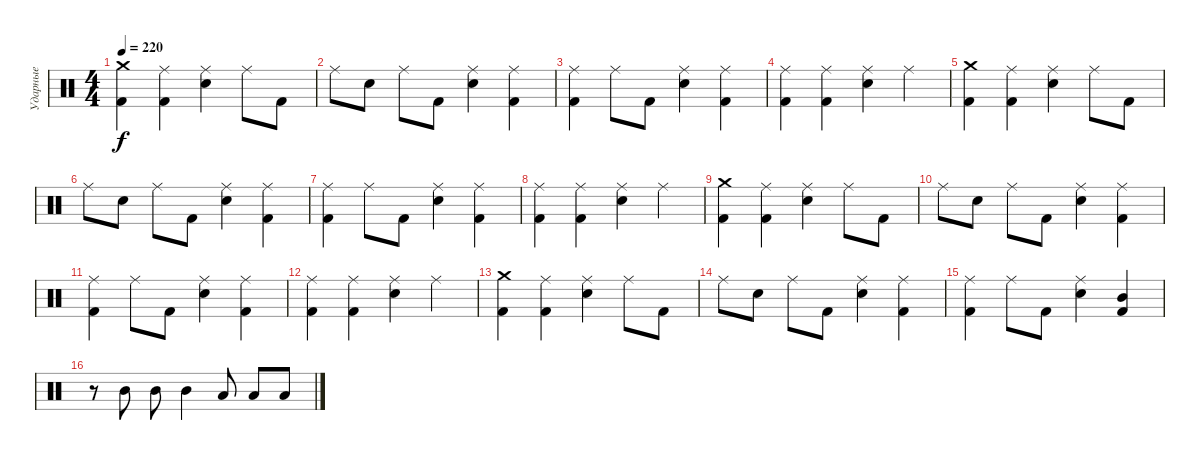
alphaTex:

\track ("Ударные" "Ударные") {instrument percussion}
\staff {score}
\articulation defaults
\ts (4 4)
\tempo 220
\clef neutral
\ks c
("Crash medium (hit)" "Kick (hit) 2").4{dy f} ("Ride (middle)" "Kick (hit) 2").4 ("Ride (middle)" "Electric Snare (hit)").4 "Ride (middle)".8 "Kick (hit) 2".8 |
"Ride (middle)".8 "Electric Snare (hit)".8 "Ride (middle)".8 "Kick (hit) 2".8 ("Ride (middle)" "Electric Snare (hit)").4 ("Ride (middle)" "Kick (hit) 2").4 |
("Ride (middle)" "Kick (hit) 2").4 "Ride (middle)".8 "Kick (hit) 2".8 ("Ride (middle)" "Electric Snare (hit)").4 ("Ride (middle)" "Kick (hit) 2").4 |
("Ride (middle)" "Kick (hit) 2").4 ("Ride (middle)" "Kick (hit) 2").4 ("Ride (middle)" "Electric Snare (hit)").4 "Ride (middle)".4 |
("Crash medium (hit)" "Kick (hit) 2").4 ("Ride (middle)" "Kick (hit) 2").4 ("Ride (middle)" "Electric Snare (hit)").4 "Ride (middle)".8 "Kick (hit) 2".8 |
"Ride (middle)".8 "Electric Snare (hit)".8 "Ride (middle)".8 "Kick (hit) 2".8 ("Ride (middle)" "Electric Snare (hit)").4 ("Ride (middle)" "Kick (hit) 2").4 |
("Ride (middle)" "Kick (hit) 2").4 "Ride (middle)".8 "Kick (hit) 2".8 ("Ride (middle)" "Electric Snare (hit)").4 ("Ride (middle)" "Kick (hit) 2").4 |
("Ride (middle)" "Kick (hit) 2").4 ("Ride (middle)" "Kick (hit) 2").4 ("Ride (middle)" "Electric Snare (hit)").4 "Ride (middle)".4 |
("Crash medium (hit)" "Kick (hit) 2").4 ("Ride (middle)" "Kick (hit) 2").4 ("Ride (middle)" "Electric Snare (hit)").4 "Ride (middle)".8 "Kick (hit) 2".8 |
"Ride (middle)".8 "Electric Snare (hit)".8 "Ride (middle)".8 "Kick (hit) 2".8 ("Ride (middle)" "Electric Snare (hit)").4 ("Ride (middle)" "Kick (hit) 2").4 |
("Ride (middle)" "Kick (hit) 2").4 "Ride (middle)".8 "Kick (hit) 2".8 ("Ride (middle)" "Electric Snare (hit)").4 ("Ride (middle)" "Kick (hit) 2").4 |
("Ride (middle)" "Kick (hit) 2").4 ("Ride (middle)" "Kick (hit) 2").4 ("Ride (middle)" "Electric Snare (hit)").4 "Ride (middle)".4 |
("Crash medium (hit)" "Kick (hit) 2").4 ("Ride (middle)" "Kick (hit) 2").4 ("Ride (middle)" "Electric Snare (hit)").4 "Ride (middle)".8 "Kick (hit) 2".8 |
"Ride (middle)".8 "Electric Snare (hit)".8 "Ride (middle)".8 "Kick (hit) 2".8 ("Ride (middle)" "Electric Snare (hit)").4 ("Ride (middle)" "Kick (hit) 2").4 |
("Ride (middle)" "Kick (hit) 2").4 "Ride (middle)".8 "Kick (hit) 2".8 ("Ride (middle)" "Electric Snare (hit)").4 ("Mid Tom (hit)" "Kick (hit) 2").4 |
r.8 "Mid Tom (hit)".8 "Mid Tom (hit)".8 "Mid Tom (hit)".4 "Low Tom (hit)".8 "Low Tom (hit)".8 "Low Tom (hit)".8
